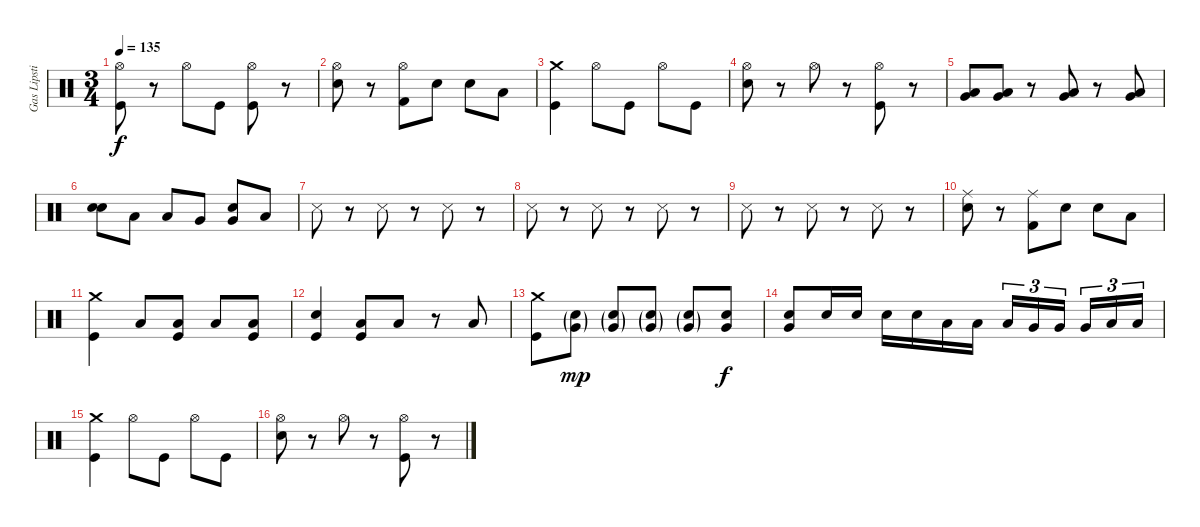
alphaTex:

\track ("Gas Lipstick" "Gas Lipsti") {instrument percussion}
\staff {score}
\articulation defaults
\ts (3 4)
\tempo 135
\clef neutral
\ks c
("Hi-Hat (open)" "Kick (hit)").8{dy f} r.8 "Hi-Hat (open)".8 "Kick (hit)".8 ("Hi-Hat (open)" "Kick (hit)").8 r.8 |
("Hi-Hat (open)" "Snare (hit) 2").8 r.8 ("Hi-Hat (open)" "Kick (hit) 2").8 "Snare (hit) 2".8 "Snare (hit) 2".8 "Low Tom (hit)".8 |
("Crash medium (hit)" "Kick (hit)").4 "Hi-Hat (open)".8 "Kick (hit)".8 "Hi-Hat (open)".8 "Kick (hit)".8 |
("Hi-Hat (open)" "Snare (hit) 2").8 r.8 "Hi-Hat (open)".8 r.8 ("Hi-Hat (open)" "Kick (hit)").8 r.8 |
("Low Tom (hit)" "Very Low Tom (hit)").8 ("Low Tom (hit)" "Very Low Tom (hit)").8 r.8 ("Low Tom (hit)" "Very Low Tom (hit)").8 r.8 ("Low Tom (hit)" "Very Low Tom (hit)").8 |
("Snare (hit) 2" "Snare (hit) 2").8{bd 60} "Low Tom (hit)".8 "Low Tom (hit)".8 "Very Low Tom (hit)".8 ("Very Low Tom (hit)" "Snare (hit) 2").8{bd 60} "Low Tom (hit)".8 |
"Metronome (hit)".8 r.8 "Metronome (hit)".8 r.8 "Metronome (hit)".8 r.8 |
"Metronome (hit)".8 r.8 "Metronome (hit)".8 r.8 "Metronome (hit)".8 r.8 |
"Metronome (hit)".8 r.8 "Metronome (hit)".8 r.8 "Metronome (hit)".8 r.8 |
("Ride (middle)" "Snare (hit) 2").8 r.8 ("Ride (middle)" "Kick (hit) 2").8 "Snare (hit) 2".8 "Snare (hit) 2".8 "Low Tom (hit)".8 |
("Crash medium (hit)" "Kick (hit)").4 "Low Tom (hit)".8 ("Low Tom (hit)" "Kick (hit)").8 "Low Tom (hit)".8 ("Low Tom (hit)" "Kick (hit)").8 |
("Snare (hit) 2" "Kick (hit)").4 ("Low Tom (hit)" "Kick (hit)").8 "Low Tom (hit)".8 r.8 "Low Tom (hit)".8 |
("Crash medium (hit)" "Kick (hit)").8 ("Very Low Tom (hit)"{g} "Snare (hit) 2"{g}).8{dy mp} ("Very Low Tom (hit)"{g} "Snare (hit) 2"{g}).8 ("Very Low Tom (hit)"{g} "Snare (hit) 2"{g}).8 ("Very Low Tom (hit)"{g} "Snare (hit) 2"{g}).8 ("Very Low Tom (hit)" "Snare (hit) 2").8{dy f} |
("Very Low Tom (hit)" "Snare (hit) 2").8 "Snare (hit) 2".16 "Snare (hit) 2".16 "Snare (hit) 2".16 "Snare (hit) 2".16 "Low Tom (hit)".16 "Low Tom (hit)".16 "Low Tom (hit)".16{tu (3 2)} "Very Low Tom (hit)".16{tu (3 2)} "Very Low Tom (hit)".16{tu (3 2) beam splitsecondary} "Very Low Tom (hit)".16{tu (3 2)} "Low Tom (hit)".16{tu (3 2)} "Low Tom (hit)".16{tu (3 2)} |
("Crash medium (hit)" "Kick (hit)").4 "Hi-Hat (open)".8 "Kick (hit)".8 "Hi-Hat (open)".8 "Kick (hit)".8 |
("Hi-Hat (open)" "Snare (hit) 2").8 r.8 "Hi-Hat (open)".8 r.8 ("Hi-Hat (open)" "Kick (hit)").8 r.8
